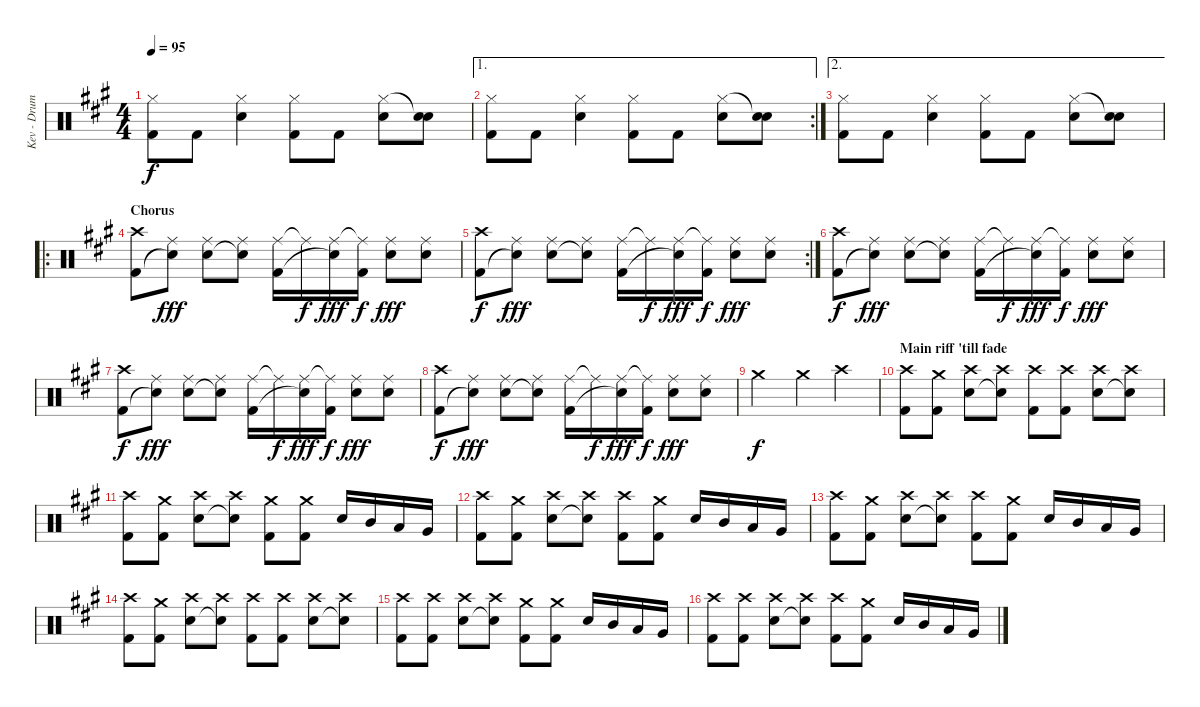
\track ("Kev - Drums" "Kev - Drum") {instrument percussion}
\staff {score}
\articulation defaults
\ts (4 4)
\tempo 95
\clef neutral
\ks a
("Hi-Hat (closed)" "Kick (hit) 2").8{dy f} "Kick (hit) 2".8 ("Hi-Hat (closed)" "Snare (hit) 2").4 ("Hi-Hat (closed)" "Kick (hit) 2").8 "Kick (hit) 2".8 ("Hi-Hat (closed)" "Snare (hit) 2").8 ("Snare (hit)"{t} "Snare (hit) 2").8 |
\ae 1
\rc 2
("Hi-Hat (closed)" "Kick (hit) 2").8 "Kick (hit) 2".8 ("Hi-Hat (closed)" "Snare (hit) 2").4 ("Hi-Hat (closed)" "Kick (hit) 2").8 "Kick (hit) 2".8 ("Hi-Hat (closed)" "Snare (hit) 2").8 ("Snare (hit)"{t} "Snare (hit) 2").8 |
\ae 2
("Hi-Hat (closed)" "Kick (hit) 2").8 "Kick (hit) 2".8 ("Hi-Hat (closed)" "Snare (hit) 2").4 ("Hi-Hat (closed)" "Kick (hit) 2").8 "Kick (hit) 2".8 ("Hi-Hat (closed)" "Snare (hit) 2").8 ("Snare (hit)"{t} "Snare (hit) 2").8 |
\ro
\section ("" "Chorus")
("Crash high (hit)" "Kick (hit) 2").8 ("Ride (middle)" "Snare (hit)"{t}).8{dy fff} ("Ride (middle)" "Snare (hit) 2").8 ("Ride (middle)" "Snare (hit)"{t}).8 ("Ride (middle)" "Kick (hit) 2").16 "Ride (middle)"{t}.16{dy f} ("Ride (middle)" "Snare (hit)"{t}).16{dy fff} ("Ride (middle)"{t} "Kick (hit) 2").16{dy f} ("Ride (middle)" "Snare (hit) 2").8{dy fff} ("Ride (middle)" "Snare (hit) 2").8 |
\rc 2
("Crash high (hit)" "Kick (hit) 2").8{dy f} ("Ride (middle)" "Snare (hit)"{t}).8{dy fff} ("Ride (middle)" "Snare (hit) 2").8 ("Ride (middle)" "Snare (hit)"{t}).8 ("Ride (middle)" "Kick (hit) 2").16 "Ride (middle)"{t}.16{dy f} ("Ride (middle)" "Snare (hit)"{t}).16{dy fff} ("Ride (middle)"{t} "Kick (hit) 2").16{dy f} ("Ride (middle)" "Snare (hit) 2").8{dy fff} ("Ride (middle)" "Snare (hit) 2").8 |
("Crash high (hit)" "Kick (hit) 2").8{dy f} ("Ride (middle)" "Snare (hit)"{t}).8{dy fff} ("Ride (middle)" "Snare (hit) 2").8 ("Ride (middle)" "Snare (hit)"{t}).8 ("Ride (middle)" "Kick (hit) 2").16 "Ride (middle)"{t}.16{dy f} ("Ride (middle)" "Snare (hit)"{t}).16{dy fff} ("Ride (middle)"{t} "Kick (hit) 2").16{dy f} ("Ride (middle)" "Snare (hit) 2").8{dy fff} ("Ride (middle)" "Snare (hit) 2").8 |
("Crash high (hit)" "Kick (hit) 2").8{dy f} ("Ride (middle)" "Snare (hit)"{t}).8{dy fff} ("Ride (middle)" "Snare (hit) 2").8 ("Ride (middle)" "Snare (hit)"{t}).8 ("Ride (middle)" "Kick (hit) 2").16 "Ride (middle)"{t}.16{dy f} ("Ride (middle)" "Snare (hit)"{t}).16{dy fff} ("Ride (middle)"{t} "Kick (hit) 2").16{dy f} ("Ride (middle)" "Snare (hit) 2").8{dy fff} ("Ride (middle)" "Snare (hit) 2").8 |
("Crash high (hit)" "Kick (hit) 2").8{dy f} ("Ride (middle)" "Snare (hit)"{t}).8{dy fff} ("Ride (middle)" "Snare (hit) 2").8 ("Ride (middle)" "Snare (hit)"{t}).8 ("Ride (middle)" "Kick (hit) 2").16 "Ride (middle)"{t}.16{dy f} ("Ride (middle)" "Snare (hit)"{t}).16{dy fff} ("Ride (middle)"{t} "Kick (hit) 2").16{dy f} ("Ride (middle)" "Snare (hit) 2").8{dy fff} ("Ride (middle)" "Snare (hit) 2").8 |
"Crash medium (hit)".2{dy f} "Crash medium (hit)".4 "Crash high (hit)".4 |
\section ("" "Main riff 'till fade")
("Crash high (hit)" "Kick (hit) 2").8 ("Crash medium (hit)" "Kick (hit) 2").8 ("Crash high (hit)" "Snare (hit) 2").8 ("Crash high (hit)" "Snare (hit)"{t}).8 ("Crash high (hit)" "Kick (hit) 2").8 ("Crash high (hit)" "Kick (hit) 2").8 ("Crash high (hit)" "Snare (hit) 2").8 ("Crash high (hit)" "Snare (hit)"{t}).8 |
("Crash high (hit)" "Kick (hit) 2").8 ("Crash medium (hit)" "Kick (hit) 2").8 ("Crash high (hit)" "Snare (hit) 2").8 ("Crash high (hit)" "Snare (hit)"{t}).8 ("Crash medium (hit)" "Kick (hit) 2").8 ("Crash medium (hit)" "Kick (hit) 2").8 "Snare (hit) 2".16 "Mid Tom (hit)".16 "Low Tom (hit)".16 "Very Low Tom (hit)".16 |
("Crash high (hit)" "Kick (hit) 2").8 ("Crash medium (hit)" "Kick (hit) 2").8 ("Crash high (hit)" "Snare (hit) 2").8 ("Crash high (hit)" "Snare (hit)"{t}).8 ("Crash high (hit)" "Kick (hit) 2").8 ("Crash medium (hit)" "Kick (hit) 2").8 "Snare (hit) 2".16 "Mid Tom (hit)".16 "Low Tom (hit)".16 "Very Low Tom (hit)".16 |
("Crash high (hit)" "Kick (hit) 2").8 ("Crash medium (hit)" "Kick (hit) 2").8 ("Crash high (hit)" "Snare (hit) 2").8 ("Crash high (hit)" "Snare (hit)"{t}).8 ("Crash high (hit)" "Kick (hit) 2").8 ("Crash medium (hit)" "Kick (hit) 2").8 "Snare (hit) 2".16 "Mid Tom (hit)".16 "Low Tom (hit)".16 "Very Low Tom (hit)".16 |
("Crash high (hit)" "Kick (hit) 2").8 ("Crash medium (hit)" "Kick (hit) 2").8 ("Crash high (hit)" "Snare (hit) 2").8 ("Crash high (hit)" "Snare (hit)"{t}).8 ("Crash high (hit)" "Kick (hit) 2").8 ("Crash high (hit)" "Kick (hit) 2").8 ("Crash high (hit)" "Snare (hit) 2").8 ("Crash high (hit)" "Snare (hit)"{t}).8 |
("Crash high (hit)" "Kick (hit) 2").8 ("Crash high (hit)" "Kick (hit) 2").8 ("Crash high (hit)" "Snare (hit) 2").8 ("Crash high (hit)" "Snare (hit)"{t}).8 ("Crash medium (hit)" "Kick (hit) 2").8 ("Crash medium (hit)" "Kick (hit) 2").8 "Snare (hit) 2".16 "Mid Tom (hit)".16 "Low Tom (hit)".16 "Very Low Tom (hit)".16 |
("Crash high (hit)" "Kick (hit) 2").8 ("Crash high (hit)" "Kick (hit) 2").8 ("Crash high (hit)" "Snare (hit) 2").8 ("Crash high (hit)" "Snare (hit)"{t}).8 ("Crash high (hit)" "Kick (hit) 2").8 ("Crash medium (hit)" "Kick (hit) 2").8 "Snare (hit) 2".16 "Mid Tom (hit)".16 "Low Tom (hit)".16 "Very Low Tom (hit)".16
